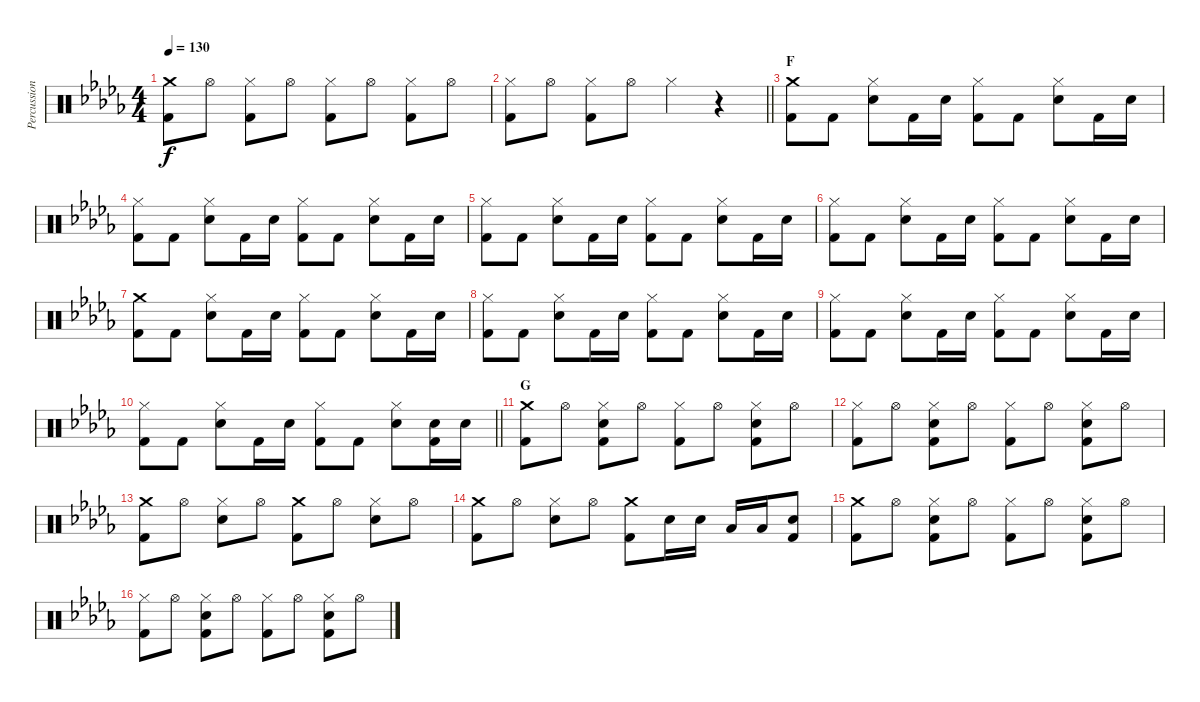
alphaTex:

\track ("Percussion" "Percussion") {instrument percussion}
\staff {score}
\articulation defaults
\ts (4 4)
\tempo 130
\clef neutral
\ks db
("Crash medium (hit)" "Kick (hit) 2").8{dy f} "Hi-Hat (open)".8 ("Hi-Hat (closed)" "Kick (hit) 2").8 "Hi-Hat (open)".8 ("Hi-Hat (closed)" "Kick (hit) 2").8 "Hi-Hat (open)".8 ("Hi-Hat (closed)" "Kick (hit) 2").8 "Hi-Hat (open)".8 |
\barLineRight lightlight
("Hi-Hat (closed)" "Kick (hit) 2").8 "Hi-Hat (open)".8 ("Hi-Hat (closed)" "Kick (hit) 2").8 "Hi-Hat (open)".8 "Hi-Hat (closed)".4 r.4 |
\section ("" "F")
("Crash medium (hit)" "Kick (hit) 2").8 "Kick (hit) 2".8 ("Hi-Hat (closed)" "Electric Snare (hit)").8 "Kick (hit) 2".16 "Electric Snare (hit)".16 ("Hi-Hat (closed)" "Kick (hit) 2").8 "Kick (hit) 2".8 ("Hi-Hat (closed)" "Electric Snare (hit)").8 "Kick (hit) 2".16 "Electric Snare (hit)".16 |
("Hi-Hat (closed)" "Kick (hit) 2").8 "Kick (hit) 2".8 ("Hi-Hat (closed)" "Electric Snare (hit)").8 "Kick (hit) 2".16 "Electric Snare (hit)".16 ("Hi-Hat (closed)" "Kick (hit) 2").8 "Kick (hit) 2".8 ("Hi-Hat (closed)" "Electric Snare (hit)").8 "Kick (hit) 2".16 "Electric Snare (hit)".16 |
("Hi-Hat (closed)" "Kick (hit) 2").8 "Kick (hit) 2".8 ("Hi-Hat (closed)" "Electric Snare (hit)").8 "Kick (hit) 2".16 "Electric Snare (hit)".16 ("Hi-Hat (closed)" "Kick (hit) 2").8 "Kick (hit) 2".8 ("Hi-Hat (closed)" "Electric Snare (hit)").8 "Kick (hit) 2".16 "Electric Snare (hit)".16 |
("Hi-Hat (closed)" "Kick (hit) 2").8 "Kick (hit) 2".8 ("Hi-Hat (closed)" "Electric Snare (hit)").8 "Kick (hit) 2".16 "Electric Snare (hit)".16 ("Hi-Hat (closed)" "Kick (hit) 2").8 "Kick (hit) 2".8 ("Hi-Hat (closed)" "Electric Snare (hit)").8 "Kick (hit) 2".16 "Electric Snare (hit)".16 |
("Crash medium (hit)" "Kick (hit) 2").8 "Kick (hit) 2".8 ("Hi-Hat (closed)" "Electric Snare (hit)").8 "Kick (hit) 2".16 "Electric Snare (hit)".16 ("Hi-Hat (closed)" "Kick (hit) 2").8 "Kick (hit) 2".8 ("Hi-Hat (closed)" "Electric Snare (hit)").8 "Kick (hit) 2".16 "Electric Snare (hit)".16 |
("Hi-Hat (closed)" "Kick (hit) 2").8 "Kick (hit) 2".8 ("Hi-Hat (closed)" "Electric Snare (hit)").8 "Kick (hit) 2".16 "Electric Snare (hit)".16 ("Hi-Hat (closed)" "Kick (hit) 2").8 "Kick (hit) 2".8 ("Hi-Hat (closed)" "Electric Snare (hit)").8 "Kick (hit) 2".16 "Electric Snare (hit)".16 |
("Hi-Hat (closed)" "Kick (hit) 2").8 "Kick (hit) 2".8 ("Hi-Hat (closed)" "Electric Snare (hit)").8 "Kick (hit) 2".16 "Electric Snare (hit)".16 ("Hi-Hat (closed)" "Kick (hit) 2").8 "Kick (hit) 2".8 ("Hi-Hat (closed)" "Electric Snare (hit)").8 "Kick (hit) 2".16 "Electric Snare (hit)".16 |
\barLineRight lightlight
("Hi-Hat (closed)" "Kick (hit) 2").8 "Kick (hit) 2".8 ("Hi-Hat (closed)" "Electric Snare (hit)").8 "Kick (hit) 2".16 "Electric Snare (hit)".16 ("Hi-Hat (closed)" "Kick (hit) 2").8 "Kick (hit) 2".8 ("Hi-Hat (closed)" "Electric Snare (hit)").8 ("Electric Snare (hit)" "Kick (hit) 2").16 "Electric Snare (hit)".16 |
\section ("" "G")
("Crash medium (hit)" "Kick (hit) 2").8 "Hi-Hat (open)".8 ("Hi-Hat (closed)" "Electric Snare (hit)" "Kick (hit) 2").8 "Hi-Hat (open)".8 ("Hi-Hat (closed)" "Kick (hit) 2").8 "Hi-Hat (open)".8 ("Hi-Hat (closed)" "Electric Snare (hit)" "Kick (hit) 2").8 "Hi-Hat (open)".8 |
("Hi-Hat (closed)" "Kick (hit) 2").8 "Hi-Hat (open)".8 ("Hi-Hat (closed)" "Electric Snare (hit)" "Kick (hit) 2").8 "Hi-Hat (open)".8 ("Hi-Hat (closed)" "Kick (hit) 2").8 "Hi-Hat (open)".8 ("Hi-Hat (closed)" "Electric Snare (hit)" "Kick (hit) 2").8 "Hi-Hat (open)".8 |
("Crash medium (hit)" "Kick (hit) 2").8 "Hi-Hat (open)".8 ("Hi-Hat (closed)" "Electric Snare (hit)").8 "Hi-Hat (open)".8 ("Crash medium (hit)" "Kick (hit) 2").8 "Hi-Hat (open)".8 ("Hi-Hat (closed)" "Electric Snare (hit)").8 "Hi-Hat (open)".8 |
("Crash medium (hit)" "Kick (hit) 2").8 "Hi-Hat (open)".8 ("Hi-Hat (closed)" "Electric Snare (hit)").8 "Hi-Hat (open)".8 ("Crash medium (hit)" "Kick (hit) 2").8 "Electric Snare (hit)".16 "Electric Snare (hit)".16 "Low Tom (hit)".16 "Low Tom (hit)".16 ("Electric Snare (hit)" "Kick (hit) 2").8 |
("Crash medium (hit)" "Kick (hit) 2").8 "Hi-Hat (open)".8 ("Hi-Hat (closed)" "Electric Snare (hit)" "Kick (hit) 2").8 "Hi-Hat (open)".8 ("Hi-Hat (closed)" "Kick (hit) 2").8 "Hi-Hat (open)".8 ("Hi-Hat (closed)" "Electric Snare (hit)" "Kick (hit) 2").8 "Hi-Hat (open)".8 |
("Hi-Hat (closed)" "Kick (hit) 2").8 "Hi-Hat (open)".8 ("Hi-Hat (closed)" "Electric Snare (hit)" "Kick (hit) 2").8 "Hi-Hat (open)".8 ("Hi-Hat (closed)" "Kick (hit) 2").8 "Hi-Hat (open)".8 ("Hi-Hat (closed)" "Electric Snare (hit)" "Kick (hit) 2").8 "Hi-Hat (open)".8
